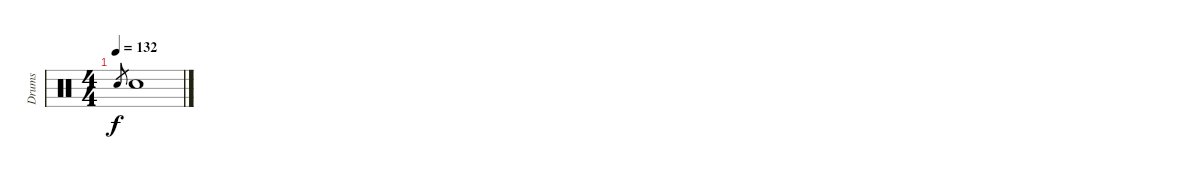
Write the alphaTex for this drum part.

\track ("Drums" "Drums") {instrument percussion}
\staff {score}
\articulation defaults
\ts (4 4)
\tempo 132
\clef neutral
\ks c "Electric Snare (hit)".8{gr dy f} "Electric Snare (hit)".1
